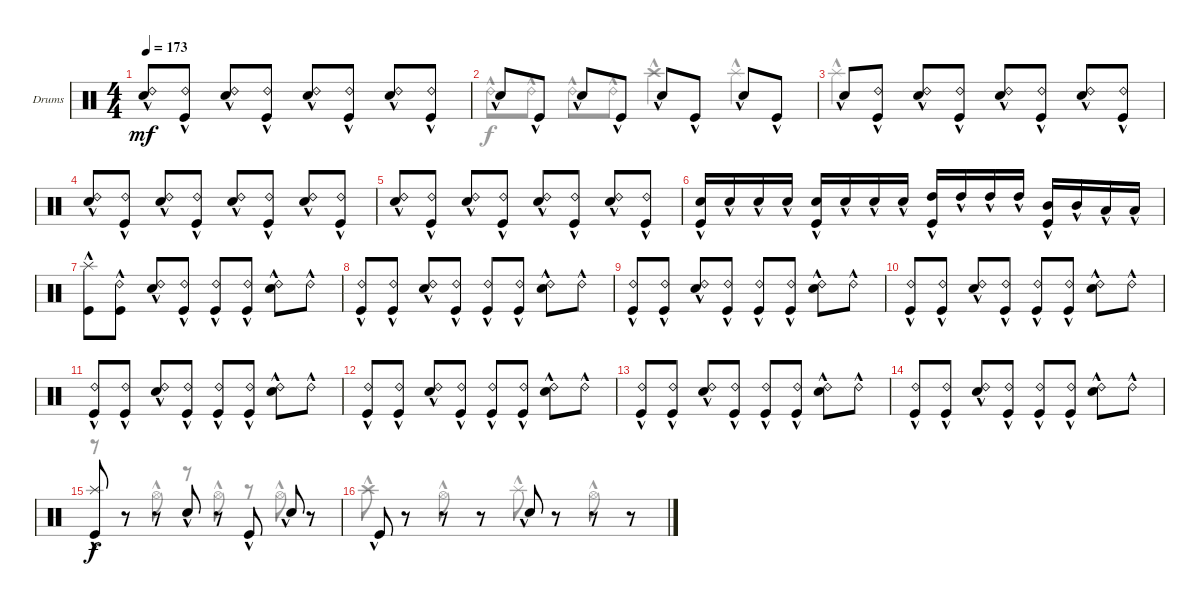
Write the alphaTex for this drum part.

\defaultSystemsLayout 4
\bracketExtendMode groupsimilarinstruments
\firstSystemTrackNameOrientation horizontal
\otherSystemsTrackNameOrientation horizontal
\track ("Drumkit" "Drums") {instrument percussion}
\staff {score}
\articulation defaults
\voice
\ts (4 4)
\tempo 173
\clef neutral
\ks c
("Snare (hit) 2"{hac} "Ride (bell) 2"{hac}).8{dy mf} ("Kick (hit)"{hac} "Ride (bell) 2"{hac}).8 ("Snare (hit) 2"{hac} "Ride (bell) 2"{hac}).8 ("Kick (hit)"{hac} "Ride (bell) 2"{hac}).8 ("Snare (hit) 2"{hac} "Ride (bell) 2"{hac}).8 ("Kick (hit)"{hac} "Ride (bell) 2"{hac}).8 ("Snare (hit) 2"{hac} "Ride (bell) 2"{hac}).8 ("Kick (hit)"{hac} "Ride (bell) 2"{hac}).8 |
"Snare (hit) 2"{hac}.8 "Kick (hit)"{hac}.8 "Snare (hit) 2"{hac}.8 "Kick (hit)"{hac}.8 "Snare (hit) 2"{hac}.8 "Kick (hit)"{hac}.8 "Snare (hit) 2"{hac}.8 "Kick (hit)"{hac}.8 |
"Snare (hit) 2"{hac}.8 ("Kick (hit)"{hac} "Ride (bell) 2"{hac}).8 ("Snare (hit) 2"{hac} "Ride (bell) 2"{hac}).8 ("Kick (hit)"{hac} "Ride (bell) 2"{hac}).8 ("Snare (hit) 2"{hac} "Ride (bell) 2"{hac}).8 ("Kick (hit)"{hac} "Ride (bell) 2"{hac}).8 ("Snare (hit) 2"{hac} "Ride (bell) 2"{hac}).8 ("Kick (hit)"{hac} "Ride (bell) 2"{hac}).8 |
("Snare (hit) 2"{hac} "Ride (bell) 2"{hac}).8 ("Kick (hit)"{hac} "Ride (bell) 2"{hac}).8 ("Snare (hit) 2"{hac} "Ride (bell) 2"{hac}).8 ("Kick (hit)"{hac} "Ride (bell) 2"{hac}).8 ("Snare (hit) 2"{hac} "Ride (bell) 2"{hac}).8 ("Kick (hit)"{hac} "Ride (bell) 2"{hac}).8 ("Snare (hit) 2"{hac} "Ride (bell) 2"{hac}).8 ("Kick (hit)"{hac} "Ride (bell) 2"{hac}).8 |
("Snare (hit) 2"{hac} "Ride (bell) 2"{hac}).8 ("Kick (hit)"{hac} "Ride (bell) 2"{hac}).8 ("Snare (hit) 2"{hac} "Ride (bell) 2"{hac}).8 ("Kick (hit)"{hac} "Ride (bell) 2"{hac}).8 ("Snare (hit) 2"{hac} "Ride (bell) 2"{hac}).8 ("Kick (hit)"{hac} "Ride (bell) 2"{hac}).8 ("Snare (hit) 2"{hac} "Ride (bell) 2"{hac}).8 ("Kick (hit)"{hac} "Ride (bell) 2"{hac}).8 |
("Kick (hit)"{hac} "Snare (hit) 2"{hac}).16 "Snare (hit) 2"{hac}.16 "Snare (hit) 2"{hac}.16 "Snare (hit) 2"{hac}.16 ("Kick (hit)"{hac} "Snare (hit) 2"{hac}).16 "Snare (hit) 2"{hac}.16 "Snare (hit) 2"{hac}.16 "Snare (hit) 2"{hac}.16 ("Kick (hit)"{hac} "High Tom (hit)"{hac}).16 "High Tom (hit)"{hac}.16 "High Tom (hit)"{hac}.16 "High Tom (hit)"{hac}.16 ("Mid Tom (hit)"{hac} "Kick (hit)"{hac}).16 "Mid Tom (hit)"{hac}.16 "Low Tom (hit)"{hac}.16 "Low Tom (hit)"{hac}.16 |
("Kick (hit)"{hac} "Splash (hit)"{hac}).8 ("Kick (hit)"{hac} "Ride (bell) 2"{hac}).8 ("Snare (hit) 2"{hac} "Ride (bell) 2"{hac}).8 ("Kick (hit)"{hac} "Ride (bell) 2"{hac}).8 ("Kick (hit)"{hac} "Ride (bell) 2"{hac}).8 ("Kick (hit)"{hac} "Ride (bell) 2"{hac}).8 ("Snare (hit) 2"{hac} "Ride (bell) 2"{hac}).8 "Ride (bell) 2"{hac}.8 |
("Kick (hit)"{hac} "Ride (bell) 2"{hac}).8 ("Kick (hit)"{hac} "Ride (bell) 2"{hac}).8 ("Snare (hit) 2"{hac} "Ride (bell) 2"{hac}).8 ("Kick (hit)"{hac} "Ride (bell) 2"{hac}).8 ("Kick (hit)"{hac} "Ride (bell) 2"{hac}).8 ("Kick (hit)"{hac} "Ride (bell) 2"{hac}).8 ("Snare (hit) 2"{hac} "Ride (bell) 2"{hac}).8 "Ride (bell) 2"{hac}.8 |
("Kick (hit)"{hac} "Ride (bell) 2"{hac}).8 ("Kick (hit)"{hac} "Ride (bell) 2"{hac}).8 ("Snare (hit) 2"{hac} "Ride (bell) 2"{hac}).8 ("Kick (hit)"{hac} "Ride (bell) 2"{hac}).8 ("Kick (hit)"{hac} "Ride (bell) 2"{hac}).8 ("Kick (hit)"{hac} "Ride (bell) 2"{hac}).8 ("Snare (hit) 2"{hac} "Ride (bell) 2"{hac}).8 "Ride (bell) 2"{hac}.8 |
("Kick (hit)"{hac} "Ride (bell) 2"{hac}).8 ("Kick (hit)"{hac} "Ride (bell) 2"{hac}).8 ("Snare (hit) 2"{hac} "Ride (bell) 2"{hac}).8 ("Kick (hit)"{hac} "Ride (bell) 2"{hac}).8 ("Kick (hit)"{hac} "Ride (bell) 2"{hac}).8 ("Kick (hit)"{hac} "Ride (bell) 2"{hac}).8 ("Snare (hit) 2"{hac} "Ride (bell) 2"{hac}).8 "Ride (bell) 2"{hac}.8 |
("Kick (hit)"{hac} "Ride (bell) 2"{hac}).8 ("Kick (hit)"{hac} "Ride (bell) 2"{hac}).8 ("Snare (hit) 2"{hac} "Ride (bell) 2"{hac}).8 ("Kick (hit)"{hac} "Ride (bell) 2"{hac}).8 ("Kick (hit)"{hac} "Ride (bell) 2"{hac}).8 ("Kick (hit)"{hac} "Ride (bell) 2"{hac}).8 ("Snare (hit) 2"{hac} "Ride (bell) 2"{hac}).8 "Ride (bell) 2"{hac}.8 |
("Kick (hit)"{hac} "Ride (bell) 2"{hac}).8 ("Kick (hit)"{hac} "Ride (bell) 2"{hac}).8 ("Snare (hit) 2"{hac} "Ride (bell) 2"{hac}).8 ("Kick (hit)"{hac} "Ride (bell) 2"{hac}).8 ("Kick (hit)"{hac} "Ride (bell) 2"{hac}).8 ("Kick (hit)"{hac} "Ride (bell) 2"{hac}).8 ("Snare (hit) 2"{hac} "Ride (bell) 2"{hac}).8 "Ride (bell) 2"{hac}.8 |
("Kick (hit)"{hac} "Ride (bell) 2"{hac}).8 ("Kick (hit)"{hac} "Ride (bell) 2"{hac}).8 ("Snare (hit) 2"{hac} "Ride (bell) 2"{hac}).8 ("Kick (hit)"{hac} "Ride (bell) 2"{hac}).8 ("Kick (hit)"{hac} "Ride (bell) 2"{hac}).8 ("Kick (hit)"{hac} "Ride (bell) 2"{hac}).8 ("Snare (hit) 2"{hac} "Ride (bell) 2"{hac}).8 "Ride (bell) 2"{hac}.8 |
("Kick (hit)"{hac} "Ride (bell) 2"{hac}).8 ("Kick (hit)"{hac} "Ride (bell) 2"{hac}).8 ("Snare (hit) 2"{hac} "Ride (bell) 2"{hac}).8 ("Kick (hit)"{hac} "Ride (bell) 2"{hac}).8 ("Kick (hit)"{hac} "Ride (bell) 2"{hac}).8 ("Kick (hit)"{hac} "Ride (bell) 2"{hac}).8 ("Snare (hit) 2"{hac} "Ride (bell) 2"{hac}).8 "Ride (bell) 2"{hac}.8 |
("Splash (hit)"{hac} "Kick (hit)"{hac}).8{dy f} r.8 r.8 "Snare (hit) 2"{hac}.8 r.8 "Kick (hit)"{hac}.8 "Snare (hit) 2"{hac}.8 r.8 |
"Kick (hit)"{hac}.8 r.8 r.8 r.8 "Snare (hit) 2"{hac}.8 r.8 r.8 r.8
\voice
\clef neutral
\ottava regular
\simile none
\ks c
|
"Ride (bell) 2"{hac}.8 "Ride (bell) 2"{hac}.8 "Ride (bell) 2"{hac}.8 "Ride (bell) 2"{hac}.8 "Crash high (hit)"{hac}.4 "Splash (hit)"{hac}.4 |
"Splash (hit)"{hac}.4 |
|
|
|
|
|
|
|
|
|
|
|
r.8 r.8 "Hi-Hat (open)"{hac}.8{dy f} r.8 "Hi-Hat (open)"{hac}.8 r.8 "Hi-Hat (open)"{hac}.8 r.8 |
"Crash high (hit)"{hac}.8 r.8 "Hi-Hat (open)"{hac}.8 r.8 "Splash (hit)"{hac}.8 r.8 "Hi-Hat (open)"{hac}.8 r.8
